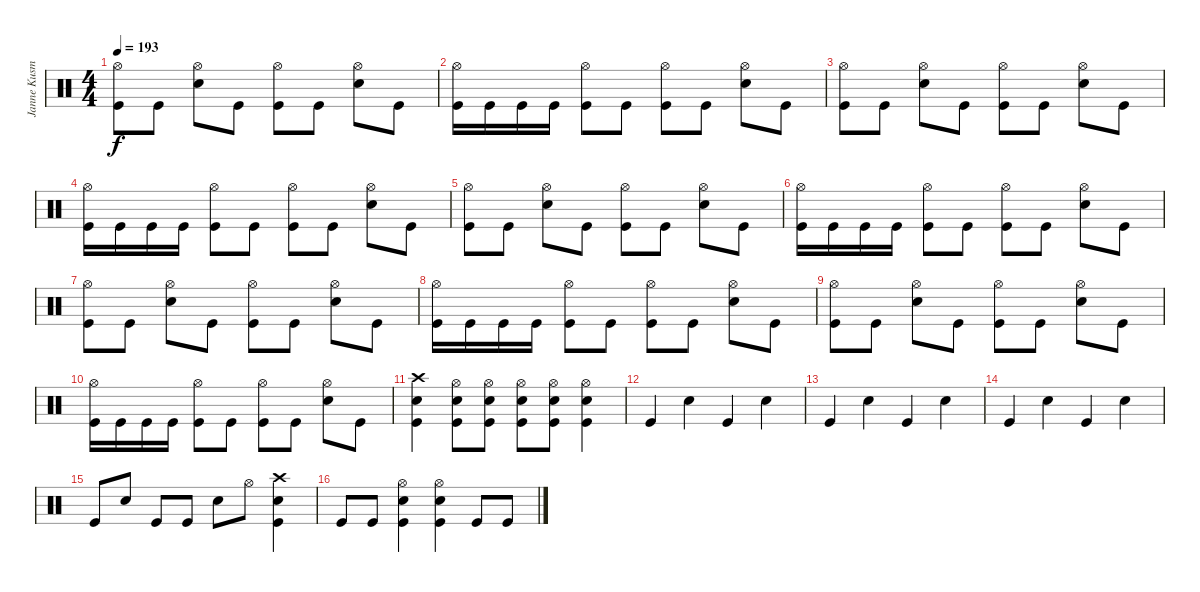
\track ("Janne Kusmin " "Janne Kusm") {instrument percussion}
\staff {score}
\articulation defaults
\ts (4 4)
\tempo 193
\clef neutral
\ks c
("Hi-Hat (open)" "Kick (hit)").8{dy f} "Kick (hit)".8 ("Hi-Hat (open)" "Snare (hit) 2").8 "Kick (hit)".8 ("Hi-Hat (open)" "Kick (hit)").8 "Kick (hit)".8 ("Hi-Hat (open)" "Snare (hit) 2").8 "Kick (hit)".8 |
("Hi-Hat (open)" "Kick (hit)").16 "Kick (hit)".16 "Kick (hit)".16 "Kick (hit)".16 ("Hi-Hat (open)" "Kick (hit)").8 "Kick (hit)".8 ("Hi-Hat (open)" "Kick (hit)").8 "Kick (hit)".8 ("Hi-Hat (open)" "Snare (hit) 2").8 "Kick (hit)".8 |
("Hi-Hat (open)" "Kick (hit)").8 "Kick (hit)".8 ("Hi-Hat (open)" "Snare (hit) 2").8 "Kick (hit)".8 ("Hi-Hat (open)" "Kick (hit)").8 "Kick (hit)".8 ("Hi-Hat (open)" "Snare (hit) 2").8 "Kick (hit)".8 |
("Hi-Hat (open)" "Kick (hit)").16 "Kick (hit)".16 "Kick (hit)".16 "Kick (hit)".16 ("Hi-Hat (open)" "Kick (hit)").8 "Kick (hit)".8 ("Hi-Hat (open)" "Kick (hit)").8 "Kick (hit)".8 ("Hi-Hat (open)" "Snare (hit) 2").8 "Kick (hit)".8 |
("Hi-Hat (open)" "Kick (hit)").8 "Kick (hit)".8 ("Hi-Hat (open)" "Snare (hit) 2").8 "Kick (hit)".8 ("Hi-Hat (open)" "Kick (hit)").8 "Kick (hit)".8 ("Hi-Hat (open)" "Snare (hit) 2").8 "Kick (hit)".8 |
("Hi-Hat (open)" "Kick (hit)").16 "Kick (hit)".16 "Kick (hit)".16 "Kick (hit)".16 ("Hi-Hat (open)" "Kick (hit)").8 "Kick (hit)".8 ("Hi-Hat (open)" "Kick (hit)").8 "Kick (hit)".8 ("Hi-Hat (open)" "Snare (hit) 2").8 "Kick (hit)".8 |
("Hi-Hat (open)" "Kick (hit)").8 "Kick (hit)".8 ("Hi-Hat (open)" "Snare (hit) 2").8 "Kick (hit)".8 ("Hi-Hat (open)" "Kick (hit)").8 "Kick (hit)".8 ("Hi-Hat (open)" "Snare (hit) 2").8 "Kick (hit)".8 |
("Hi-Hat (open)" "Kick (hit)").16 "Kick (hit)".16 "Kick (hit)".16 "Kick (hit)".16 ("Hi-Hat (open)" "Kick (hit)").8 "Kick (hit)".8 ("Hi-Hat (open)" "Kick (hit)").8 "Kick (hit)".8 ("Hi-Hat (open)" "Snare (hit) 2").8 "Kick (hit)".8 |
("Hi-Hat (open)" "Kick (hit)").8 "Kick (hit)".8 ("Hi-Hat (open)" "Snare (hit) 2").8 "Kick (hit)".8 ("Hi-Hat (open)" "Kick (hit)").8 "Kick (hit)".8 ("Hi-Hat (open)" "Snare (hit) 2").8 "Kick (hit)".8 |
("Hi-Hat (open)" "Kick (hit)").16 "Kick (hit)".16 "Kick (hit)".16 "Kick (hit)".16 ("Hi-Hat (open)" "Kick (hit)").8 "Kick (hit)".8 ("Hi-Hat (open)" "Kick (hit)").8 "Kick (hit)".8 ("Hi-Hat (open)" "Snare (hit) 2").8 "Kick (hit)".8 |
("Crash high (hit)" "Snare (hit) 2" "Kick (hit)").4 ("Hi-Hat (open)" "Snare (hit) 2" "Kick (hit)").8 ("Hi-Hat (open)" "Snare (hit) 2" "Kick (hit)").8 ("Hi-Hat (open)" "Snare (hit) 2" "Kick (hit)").8 ("Hi-Hat (open)" "Snare (hit) 2" "Kick (hit)").8 ("Hi-Hat (open)" "Snare (hit) 2" "Kick (hit)").4 |
"Kick (hit)".4 "Snare (hit) 2".4 "Kick (hit)".4 "Snare (hit) 2".4 |
"Kick (hit)".4 "Snare (hit) 2".4 "Kick (hit)".4 "Snare (hit) 2".4 |
"Kick (hit)".4 "Snare (hit) 2".4 "Kick (hit)".4 "Snare (hit) 2".4 |
"Kick (hit)".8 "Snare (hit) 2".8 "Kick (hit)".8 "Kick (hit)".8 "Snare (hit) 2".8 "Hi-Hat (open)".8 ("Snare (hit) 2" "Crash high (hit)" "Kick (hit)").4 |
"Kick (hit)".8 "Kick (hit)".8 ("Hi-Hat (open)" "Snare (hit) 2" "Kick (hit)").4 ("Hi-Hat (open)" "Snare (hit) 2" "Kick (hit)").4 "Kick (hit)".8 "Kick (hit)".8
